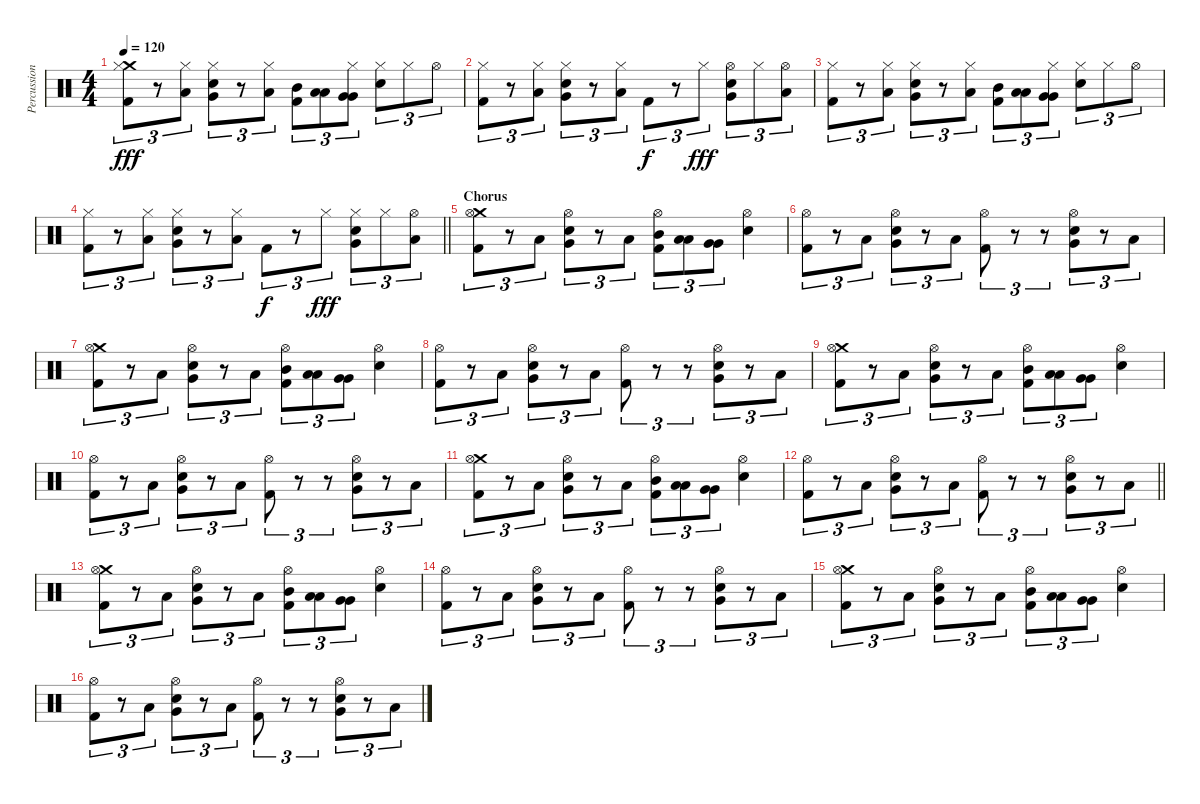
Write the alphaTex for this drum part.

\track ("Percussion" "Percussion") {instrument percussion}
\staff {score}
\articulation defaults
\ts (4 4)
\tempo 120
\clef neutral
\ks c
("Crash medium (hit)" "Hi-Hat (closed)" "Kick (hit) 2").8{tu (3 2) dy fff} r.8{tu (3 2)} ("Low Tom (hit)" "Hi-Hat (closed)").8{tu (3 2)} ("Very Low Tom (hit)" "Hi-Hat (closed)" "Snare (hit) 2").8{tu (3 2)} r.8{tu (3 2)} ("Low Tom (hit)" "Hi-Hat (closed)").8{tu (3 2)} ("Mid Tom (hit)" "Kick (hit) 2").8{tu (3 2)} ("Low Tom (hit)" "Low Tom (hit)").8{tu (3 2)} ("Very Low Tom (hit)" "Very Low Tom (hit)" "Hi-Hat (closed)").8{tu (3 2)} ("Hi-Hat (closed)" "Snare (hit) 2").8{tu (3 2)} "Hi-Hat (closed)".8{tu (3 2)} "Hi-Hat (open)".8{tu (3 2)} |
("Hi-Hat (closed)" "Kick (hit) 2").8{tu (3 2)} r.8{tu (3 2)} ("Low Tom (hit)" "Hi-Hat (closed)").8{tu (3 2)} ("Very Low Tom (hit)" "Hi-Hat (closed)" "Snare (hit) 2").8{tu (3 2)} r.8{tu (3 2)} ("Low Tom (hit)" "Hi-Hat (closed)").8{tu (3 2)} "Kick (hit) 2".8{tu (3 2) dy f} r.8{tu (3 2)} "Hi-Hat (closed)".8{tu (3 2) dy fff} ("Very Low Tom (hit)" "Hi-Hat (open)" "Snare (hit) 2").8{tu (3 2)} "Hi-Hat (closed)".8{tu (3 2)} ("Low Tom (hit)" "Hi-Hat (open)").8{tu (3 2)} |
("Hi-Hat (closed)" "Kick (hit) 2").8{tu (3 2)} r.8{tu (3 2)} ("Low Tom (hit)" "Hi-Hat (closed)").8{tu (3 2)} ("Very Low Tom (hit)" "Hi-Hat (closed)" "Snare (hit) 2").8{tu (3 2)} r.8{tu (3 2)} ("Low Tom (hit)" "Hi-Hat (closed)").8{tu (3 2)} ("Mid Tom (hit)" "Kick (hit) 2").8{tu (3 2)} ("Low Tom (hit)" "Low Tom (hit)").8{tu (3 2)} ("Very Low Tom (hit)" "Very Low Tom (hit)" "Hi-Hat (closed)").8{tu (3 2)} ("Hi-Hat (closed)" "Snare (hit) 2").8{tu (3 2)} "Hi-Hat (closed)".8{tu (3 2)} "Hi-Hat (open)".8{tu (3 2)} |
\barLineRight lightlight
("Hi-Hat (closed)" "Kick (hit) 2").8{tu (3 2)} r.8{tu (3 2)} ("Low Tom (hit)" "Hi-Hat (closed)").8{tu (3 2)} ("Very Low Tom (hit)" "Hi-Hat (closed)" "Snare (hit) 2").8{tu (3 2)} r.8{tu (3 2)} ("Low Tom (hit)" "Hi-Hat (closed)").8{tu (3 2)} "Kick (hit) 2".8{tu (3 2) dy f} r.8{tu (3 2)} "Hi-Hat (closed)".8{tu (3 2) dy fff} ("Very Low Tom (hit)" "Hi-Hat (closed)" "Snare (hit) 2").8{tu (3 2)} "Hi-Hat (closed)".8{tu (3 2)} ("Low Tom (hit)" "Hi-Hat (open)").8{tu (3 2)} |
\section ("" "Chorus")
("Crash medium (hit)" "Hi-Hat (open)" "Kick (hit) 2").8{tu (3 2)} r.8{tu (3 2)} "Low Tom (hit)".8{tu (3 2)} ("Very Low Tom (hit)" "Hi-Hat (open)" "Snare (hit) 2").8{tu (3 2)} r.8{tu (3 2)} "Low Tom (hit)".8{tu (3 2)} ("Mid Tom (hit)" "Hi-Hat (open)" "Kick (hit) 2").8{tu (3 2)} ("Low Tom (hit)" "Low Tom (hit)").8{tu (3 2)} ("Very Low Tom (hit)" "Very Low Tom (hit)").8{tu (3 2)} ("Hi-Hat (open)" "Snare (hit) 2").4 |
("Hi-Hat (open)" "Kick (hit) 2").8{tu (3 2)} r.8{tu (3 2)} "Low Tom (hit)".8{tu (3 2)} ("Very Low Tom (hit)" "Hi-Hat (open)" "Snare (hit) 2").8{tu (3 2)} r.8{tu (3 2)} "Low Tom (hit)".8{tu (3 2)} ("Hi-Hat (open)" "Kick (hit) 2").8{tu (3 2)} r.8{tu (3 2)} r.8{tu (3 2)} ("Very Low Tom (hit)" "Hi-Hat (open)" "Snare (hit) 2").8{tu (3 2)} r.8{tu (3 2)} "Low Tom (hit)".8{tu (3 2)} |
("Crash medium (hit)" "Hi-Hat (open)" "Kick (hit) 2").8{tu (3 2)} r.8{tu (3 2)} "Low Tom (hit)".8{tu (3 2)} ("Very Low Tom (hit)" "Hi-Hat (open)" "Snare (hit) 2").8{tu (3 2)} r.8{tu (3 2)} "Low Tom (hit)".8{tu (3 2)} ("Mid Tom (hit)" "Hi-Hat (open)" "Kick (hit) 2").8{tu (3 2)} ("Low Tom (hit)" "Low Tom (hit)").8{tu (3 2)} ("Very Low Tom (hit)" "Very Low Tom (hit)").8{tu (3 2)} ("Hi-Hat (open)" "Snare (hit) 2").4 |
("Hi-Hat (open)" "Kick (hit) 2").8{tu (3 2)} r.8{tu (3 2)} "Low Tom (hit)".8{tu (3 2)} ("Very Low Tom (hit)" "Hi-Hat (open)" "Snare (hit) 2").8{tu (3 2)} r.8{tu (3 2)} "Low Tom (hit)".8{tu (3 2)} ("Hi-Hat (open)" "Kick (hit) 2").8{tu (3 2)} r.8{tu (3 2)} r.8{tu (3 2)} ("Very Low Tom (hit)" "Hi-Hat (open)" "Snare (hit) 2").8{tu (3 2)} r.8{tu (3 2)} "Low Tom (hit)".8{tu (3 2)} |
("Crash medium (hit)" "Hi-Hat (open)" "Kick (hit) 2").8{tu (3 2)} r.8{tu (3 2)} "Low Tom (hit)".8{tu (3 2)} ("Very Low Tom (hit)" "Hi-Hat (open)" "Snare (hit) 2").8{tu (3 2)} r.8{tu (3 2)} "Low Tom (hit)".8{tu (3 2)} ("Mid Tom (hit)" "Hi-Hat (open)" "Kick (hit) 2").8{tu (3 2)} ("Low Tom (hit)" "Low Tom (hit)").8{tu (3 2)} ("Very Low Tom (hit)" "Very Low Tom (hit)").8{tu (3 2)} ("Hi-Hat (open)" "Snare (hit) 2").4 |
("Hi-Hat (open)" "Kick (hit) 2").8{tu (3 2)} r.8{tu (3 2)} "Low Tom (hit)".8{tu (3 2)} ("Very Low Tom (hit)" "Hi-Hat (open)" "Snare (hit) 2").8{tu (3 2)} r.8{tu (3 2)} "Low Tom (hit)".8{tu (3 2)} ("Hi-Hat (open)" "Kick (hit) 2").8{tu (3 2)} r.8{tu (3 2)} r.8{tu (3 2)} ("Very Low Tom (hit)" "Hi-Hat (open)" "Snare (hit) 2").8{tu (3 2)} r.8{tu (3 2)} "Low Tom (hit)".8{tu (3 2)} |
("Crash medium (hit)" "Hi-Hat (open)" "Kick (hit) 2").8{tu (3 2)} r.8{tu (3 2)} "Low Tom (hit)".8{tu (3 2)} ("Very Low Tom (hit)" "Hi-Hat (open)" "Snare (hit) 2").8{tu (3 2)} r.8{tu (3 2)} "Low Tom (hit)".8{tu (3 2)} ("Mid Tom (hit)" "Hi-Hat (open)" "Kick (hit) 2").8{tu (3 2)} ("Low Tom (hit)" "Low Tom (hit)").8{tu (3 2)} ("Very Low Tom (hit)" "Very Low Tom (hit)").8{tu (3 2)} ("Hi-Hat (open)" "Snare (hit) 2").4 |
\barLineRight lightlight
("Hi-Hat (open)" "Kick (hit) 2").8{tu (3 2)} r.8{tu (3 2)} "Low Tom (hit)".8{tu (3 2)} ("Very Low Tom (hit)" "Hi-Hat (open)" "Snare (hit) 2").8{tu (3 2)} r.8{tu (3 2)} "Low Tom (hit)".8{tu (3 2)} ("Hi-Hat (open)" "Kick (hit) 2").8{tu (3 2)} r.8{tu (3 2)} r.8{tu (3 2)} ("Very Low Tom (hit)" "Hi-Hat (open)" "Snare (hit) 2").8{tu (3 2)} r.8{tu (3 2)} "Low Tom (hit)".8{tu (3 2)} |
("Crash medium (hit)" "Hi-Hat (open)" "Kick (hit) 2").8{tu (3 2)} r.8{tu (3 2)} "Low Tom (hit)".8{tu (3 2)} ("Very Low Tom (hit)" "Hi-Hat (open)" "Snare (hit) 2").8{tu (3 2)} r.8{tu (3 2)} "Low Tom (hit)".8{tu (3 2)} ("Mid Tom (hit)" "Hi-Hat (open)" "Kick (hit) 2").8{tu (3 2)} ("Low Tom (hit)" "Low Tom (hit)").8{tu (3 2)} ("Very Low Tom (hit)" "Very Low Tom (hit)").8{tu (3 2)} ("Hi-Hat (open)" "Snare (hit) 2").4 |
("Hi-Hat (open)" "Kick (hit) 2").8{tu (3 2)} r.8{tu (3 2)} "Low Tom (hit)".8{tu (3 2)} ("Very Low Tom (hit)" "Hi-Hat (open)" "Snare (hit) 2").8{tu (3 2)} r.8{tu (3 2)} "Low Tom (hit)".8{tu (3 2)} ("Hi-Hat (open)" "Kick (hit) 2").8{tu (3 2)} r.8{tu (3 2)} r.8{tu (3 2)} ("Very Low Tom (hit)" "Hi-Hat (open)" "Snare (hit) 2").8{tu (3 2)} r.8{tu (3 2)} "Low Tom (hit)".8{tu (3 2)} |
("Crash medium (hit)" "Hi-Hat (open)" "Kick (hit) 2").8{tu (3 2)} r.8{tu (3 2)} "Low Tom (hit)".8{tu (3 2)} ("Very Low Tom (hit)" "Hi-Hat (open)" "Snare (hit) 2").8{tu (3 2)} r.8{tu (3 2)} "Low Tom (hit)".8{tu (3 2)} ("Mid Tom (hit)" "Hi-Hat (open)" "Kick (hit) 2").8{tu (3 2)} ("Low Tom (hit)" "Low Tom (hit)").8{tu (3 2)} ("Very Low Tom (hit)" "Very Low Tom (hit)").8{tu (3 2)} ("Hi-Hat (open)" "Snare (hit) 2").4 |
("Hi-Hat (open)" "Kick (hit) 2").8{tu (3 2)} r.8{tu (3 2)} "Low Tom (hit)".8{tu (3 2)} ("Very Low Tom (hit)" "Hi-Hat (open)" "Snare (hit) 2").8{tu (3 2)} r.8{tu (3 2)} "Low Tom (hit)".8{tu (3 2)} ("Hi-Hat (open)" "Kick (hit) 2").8{tu (3 2)} r.8{tu (3 2)} r.8{tu (3 2)} ("Very Low Tom (hit)" "Hi-Hat (open)" "Snare (hit) 2").8{tu (3 2)} r.8{tu (3 2)} "Low Tom (hit)".8{tu (3 2)}
